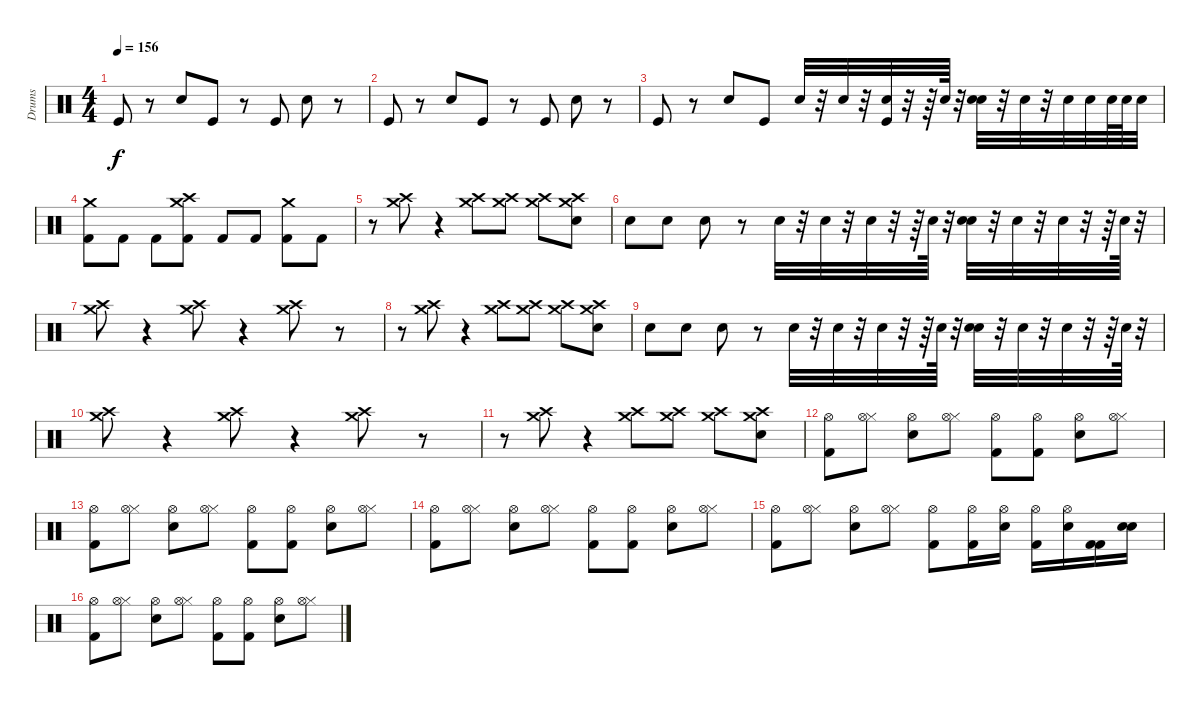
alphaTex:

\track ("Drums" "Drums") {instrument percussion}
\staff {score}
\articulation defaults
\ts (4 4)
\tempo 156
\clef neutral
\ks c "Kick (hit)".8{dy f}
r.8 "Snare (hit) 2".8 "Kick (hit)".8 r.8 "Kick (hit)".8 "Snare (hit) 2".8 r.8 |
"Kick (hit)".8 r.8 "Snare (hit) 2".8 "Kick (hit)".8 r.8 "Kick (hit)".8 "Snare (hit) 2".8 r.8 |
"Kick (hit)".8 r.8 "Snare (hit) 2".8 "Kick (hit)".8 "Electric Snare (hit)".32 r.32 "Electric Snare (hit)".32 r.32 ("Kick (hit)" "Electric Snare (hit)").32 r.32 r.64 "Electric Snare (hit)".64 r.32 ("Snare (hit) 2" "Electric Snare (hit)").32 r.32 "Electric Snare (hit)".32 r.32 "Electric Snare (hit)".32 "Electric Snare (hit)".32 "Electric Snare (hit)".64 "Electric Snare (hit)".64 "Electric Snare (hit)".32 |
("Crash medium (hit)" "Kick (hit) 2").8 "Kick (hit) 2".8 "Kick (hit) 2".8 ("Crash high (hit)" "Crash medium (hit)" "Kick (hit) 2").8 "Kick (hit) 2".8 "Kick (hit) 2".8 ("Crash medium (hit)" "Kick (hit) 2").8 "Kick (hit) 2".8 |
r.8 ("Crash high (hit)" "Crash medium (hit)").8 r.4 ("Crash high (hit)" "Crash medium (hit)").8 ("Crash high (hit)" "Crash medium (hit)").8 ("Crash high (hit)" "Crash medium (hit)").8 ("Crash high (hit)" "Crash medium (hit)" "Snare (hit) 2").8 |
"Snare (hit) 2".8 "Snare (hit) 2".8 "Snare (hit) 2".8 r.8 "Electric Snare (hit)".32 r.32 "Electric Snare (hit)".32 r.32 "Electric Snare (hit)".32 r.32 r.64 "Electric Snare (hit)".64 r.32 ("Snare (hit) 2" "Electric Snare (hit)").32 r.32 "Electric Snare (hit)".32 r.32 "Electric Snare (hit)".32 r.32 r.64 "Electric Snare (hit)".64 r.32 |
("Crash high (hit)" "Crash medium (hit)").8 r.4 ("Crash high (hit)" "Crash medium (hit)").8 r.4 ("Crash high (hit)" "Crash medium (hit)").8 r.8 |
r.8 ("Crash high (hit)" "Crash medium (hit)").8 r.4 ("Crash high (hit)" "Crash medium (hit)").8 ("Crash high (hit)" "Crash medium (hit)").8 ("Crash high (hit)" "Crash medium (hit)").8 ("Crash high (hit)" "Crash medium (hit)" "Snare (hit) 2").8 |
"Snare (hit) 2".8 "Snare (hit) 2".8 "Snare (hit) 2".8 r.8 "Electric Snare (hit)".32 r.32 "Electric Snare (hit)".32 r.32 "Electric Snare (hit)".32 r.32 r.64 "Electric Snare (hit)".64 r.32 ("Snare (hit) 2" "Electric Snare (hit)").32 r.32 "Electric Snare (hit)".32 r.32 "Electric Snare (hit)".32 r.32 r.64 "Electric Snare (hit)".64 r.32 |
("Crash high (hit)" "Crash medium (hit)").8 r.4 ("Crash high (hit)" "Crash medium (hit)").8 r.4 ("Crash high (hit)" "Crash medium (hit)").8 r.8 |
r.8 ("Crash high (hit)" "Crash medium (hit)").8 r.4 ("Crash high (hit)" "Crash medium (hit)").8 ("Crash high (hit)" "Crash medium (hit)").8 ("Crash high (hit)" "Crash medium (hit)").8 ("Crash high (hit)" "Crash medium (hit)" "Snare (hit) 2").8 |
("Kick (hit) 2" "Hi-Hat (open)").8 ("Hi-Hat (closed)" "Hi-Hat (open)").8 ("Electric Snare (hit)" "Hi-Hat (open)").8 ("Hi-Hat (closed)" "Hi-Hat (open)").8 ("Kick (hit) 2" "Hi-Hat (open)").8 ("Kick (hit) 2" "Hi-Hat (open)").8 ("Electric Snare (hit)" "Hi-Hat (open)").8 ("Hi-Hat (closed)" "Hi-Hat (open)").8 |
("Kick (hit) 2" "Hi-Hat (open)").8 ("Hi-Hat (closed)" "Hi-Hat (open)").8 ("Electric Snare (hit)" "Hi-Hat (open)").8 ("Hi-Hat (closed)" "Hi-Hat (open)").8 ("Kick (hit) 2" "Hi-Hat (open)").8 ("Kick (hit) 2" "Hi-Hat (open)").8 ("Electric Snare (hit)" "Hi-Hat (open)").8 ("Hi-Hat (closed)" "Hi-Hat (open)").8 |
("Kick (hit) 2" "Hi-Hat (open)").8 ("Hi-Hat (closed)" "Hi-Hat (open)").8 ("Electric Snare (hit)" "Hi-Hat (open)").8 ("Hi-Hat (closed)" "Hi-Hat (open)").8 ("Kick (hit) 2" "Hi-Hat (open)").8 ("Kick (hit) 2" "Hi-Hat (open)").8 ("Electric Snare (hit)" "Hi-Hat (open)").8 ("Hi-Hat (closed)" "Hi-Hat (open)").8 |
("Kick (hit) 2" "Hi-Hat (open)").8 ("Hi-Hat (closed)" "Hi-Hat (open)").8 ("Electric Snare (hit)" "Hi-Hat (open)").8 ("Hi-Hat (closed)" "Hi-Hat (open)").8 ("Kick (hit) 2" "Hi-Hat (open)").8 ("Kick (hit) 2" "Hi-Hat (open)").16 ("Electric Snare (hit)" "Hi-Hat (open)").16 ("Kick (hit) 2" "Hi-Hat (open)").16 ("Electric Snare (hit)" "Hi-Hat (open)").16 ("Kick (hit) 2" "Kick (hit) 2").16 ("Electric Snare (hit)" "Electric Snare (hit)").16 |
("Kick (hit) 2" "Hi-Hat (open)").8 ("Hi-Hat (closed)" "Hi-Hat (open)").8 ("Electric Snare (hit)" "Hi-Hat (open)").8 ("Hi-Hat (closed)" "Hi-Hat (open)").8 ("Kick (hit) 2" "Hi-Hat (open)").8 ("Kick (hit) 2" "Hi-Hat (open)").8 ("Electric Snare (hit)" "Hi-Hat (open)").8 ("Hi-Hat (closed)" "Hi-Hat (open)").8
